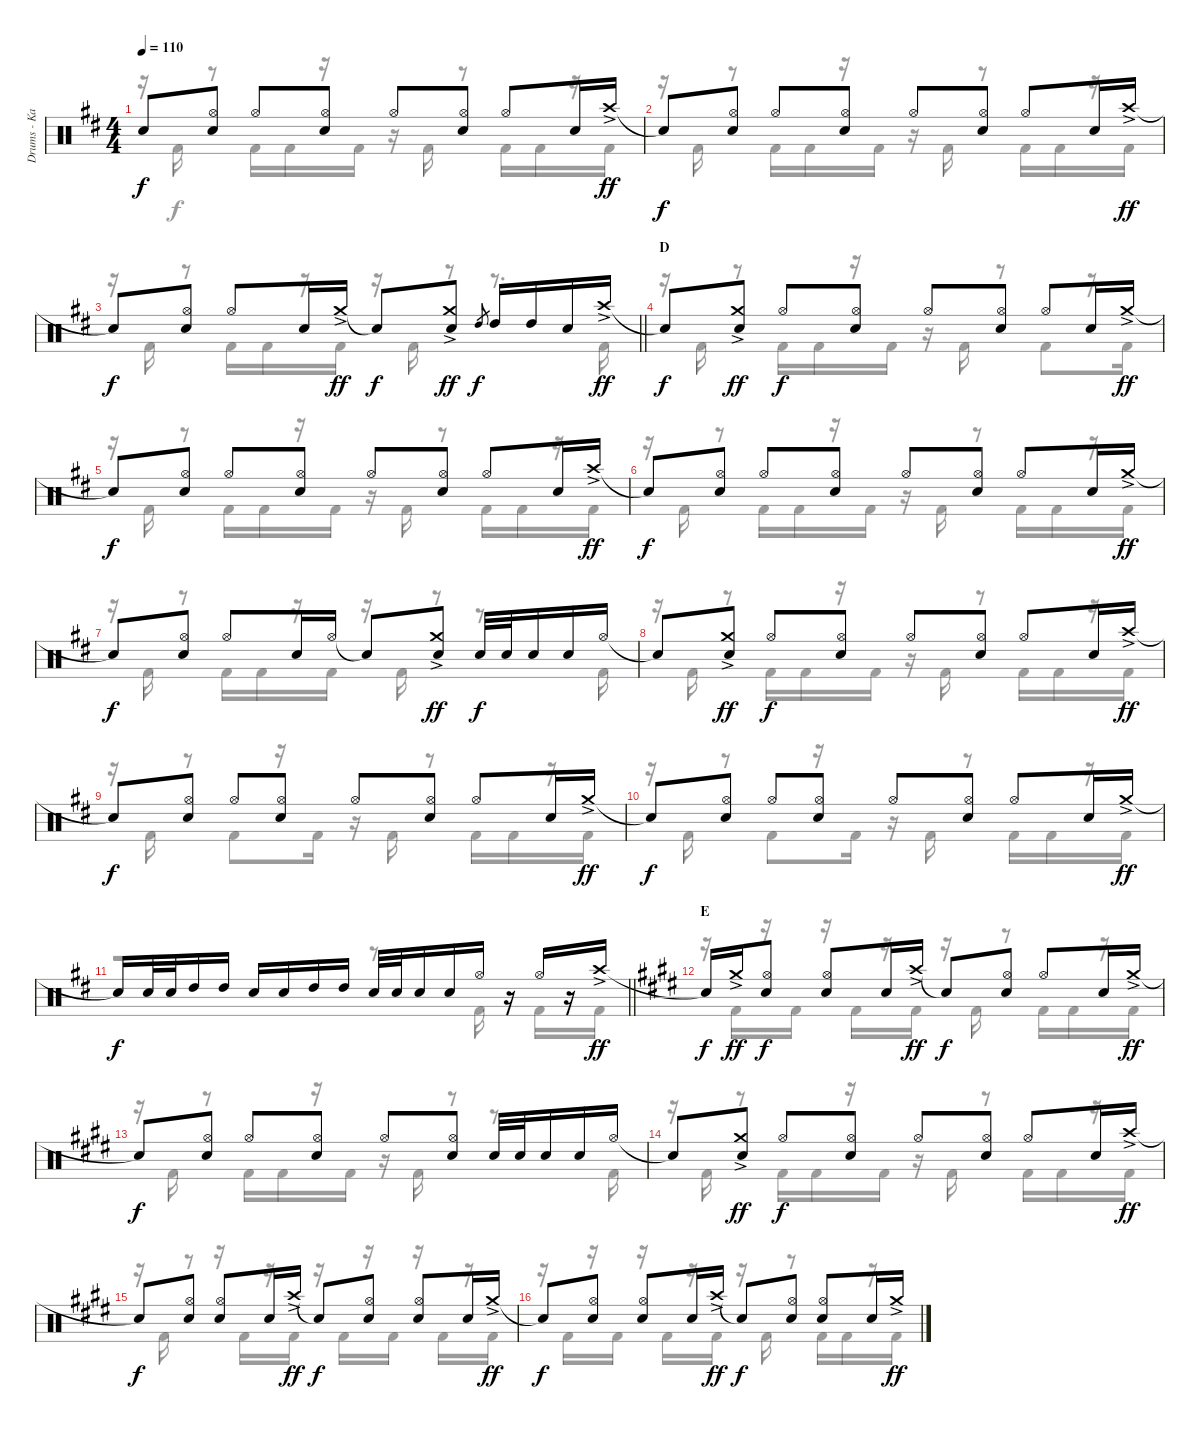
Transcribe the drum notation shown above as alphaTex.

\track ("Drums - Kai" "Drums - Ka") {instrument percussion}
\staff {score}
\articulation defaults
\voice
\ts (4 4)
\tempo 110
\clef neutral
\ks d "Snare (hit)"{t}.8{dy f}
("Hi-Hat (open)" "Snare (hit) 2").8 "Hi-Hat (open)".8 ("Hi-Hat (open)" "Snare (hit) 2").8 "Hi-Hat (open)".8 ("Hi-Hat (open)" "Snare (hit) 2").8 "Hi-Hat (open)".8 "Snare (hit) 2".16 "Crash high (hit)"{ac}.16{dy ff} |
"Snare (hit)"{t}.8{dy f} ("Hi-Hat (open)" "Snare (hit) 2").8 "Hi-Hat (open)".8 ("Hi-Hat (open)" "Snare (hit) 2").8 "Hi-Hat (open)".8 ("Hi-Hat (open)" "Snare (hit) 2").8 "Hi-Hat (open)".8 "Snare (hit) 2".16 "Crash high (hit)"{ac}.16{dy ff} |
\barLineRight lightlight "Snare (hit)"{t}.8{dy f}
("Hi-Hat (open)" "Snare (hit) 2").8 "Hi-Hat (open)".8 "Snare (hit) 2".16 "Crash medium (hit)"{ac}.16{dy ff} "Snare (hit)"{t}.8{dy f} ("Crash medium (hit)"{ac} "Snare (hit) 2").8{dy ff} "High Tom (hit)".8{gr dy f} "High Tom (hit)".16 "High Tom (hit)".16 "Snare (hit) 2".16 "Crash high (hit)"{ac}.16{dy ff} |
\section ("" "D")
"Snare (hit)"{t}.8{dy f} ("Crash medium (hit)"{ac} "Snare (hit) 2").8{dy ff} "Hi-Hat (open)".8{dy f} ("Hi-Hat (open)" "Snare (hit) 2").8 "Hi-Hat (open)".8 ("Hi-Hat (open)" "Snare (hit) 2").8 "Hi-Hat (open)".8 "Snare (hit) 2".16 "Crash medium (hit)"{ac}.16{dy ff} |
"Snare (hit)"{t}.8{dy f} ("Hi-Hat (open)" "Snare (hit) 2").8 "Hi-Hat (open)".8 ("Hi-Hat (open)" "Snare (hit) 2").8 "Hi-Hat (open)".8 ("Hi-Hat (open)" "Snare (hit) 2").8 "Hi-Hat (open)".8 "Snare (hit) 2".16 "Crash high (hit)"{ac}.16{dy ff} |
"Snare (hit)"{t}.8{dy f} ("Hi-Hat (open)" "Snare (hit) 2").8 "Hi-Hat (open)".8 ("Hi-Hat (open)" "Snare (hit) 2").8 "Hi-Hat (open)".8 ("Hi-Hat (open)" "Snare (hit) 2").8 "Hi-Hat (open)".8 "Snare (hit) 2".16 "Crash medium (hit)"{ac}.16{dy ff} |
"Snare (hit)"{t}.8{dy f} ("Hi-Hat (open)" "Snare (hit) 2").8 "Hi-Hat (open)".8 "Snare (hit) 2".16 "Hi-Hat (open)".16 "Snare (hit)"{t}.8 ("Crash medium (hit)"{ac} "Snare (hit) 2").8{dy ff} "Snare (hit) 2".32{dy f} "Snare (hit) 2".32 "Snare (hit) 2".16 "Snare (hit) 2".16 "Hi-Hat (open)".16 |
"Snare (hit)"{t}.8 ("Crash medium (hit)"{ac} "Snare (hit) 2").8{dy ff} "Hi-Hat (open)".8{dy f} ("Hi-Hat (open)" "Snare (hit) 2").8 "Hi-Hat (open)".8 ("Hi-Hat (open)" "Snare (hit) 2").8 "Hi-Hat (open)".8 "Snare (hit) 2".16 "Crash high (hit)"{ac}.16{dy ff} |
"Snare (hit)"{t}.8{dy f} ("Hi-Hat (open)" "Snare (hit) 2").8 "Hi-Hat (open)".8 ("Hi-Hat (open)" "Snare (hit) 2").8 "Hi-Hat (open)".8 ("Hi-Hat (open)" "Snare (hit) 2").8 "Hi-Hat (open)".8 "Snare (hit) 2".16 "Crash medium (hit)"{ac}.16{dy ff} |
"Snare (hit)"{t}.8{dy f} ("Hi-Hat (open)" "Snare (hit) 2").8 "Hi-Hat (open)".8 ("Hi-Hat (open)" "Snare (hit) 2").8 "Hi-Hat (open)".8 ("Hi-Hat (open)" "Snare (hit) 2").8 "Hi-Hat (open)".8 "Snare (hit) 2".16 "Crash medium (hit)"{ac}.16{dy ff} |
\barLineRight lightlight "Snare (hit)"{t}.16{dy f} "Snare (hit) 2".32 "Snare (hit) 2".32 "High Tom (hit)".16 "High Tom (hit)".16 "Snare (hit) 2".16 "Snare (hit) 2".16 "High Tom (hit)".16 "High Tom (hit)".16 "Snare (hit) 2".32 "Snare (hit) 2".32 "Snare (hit) 2".16 "Snare (hit) 2".16 "Hi-Hat (open)".16
r.16 "Hi-Hat (open)".16 r.16 "Crash high (hit)"{ac}.16{dy ff} |
\section ("" "E")
\ks e "Snare (hit)"{t}.16{dy f} "Crash medium (hit)"{ac}.16{dy ff}
("Hi-Hat (open)" "Snare (hit) 2").8{dy f} ("Hi-Hat (open)" "Snare (hit) 2").8 "Snare (hit) 2".16 "Crash high (hit)"{ac}.16{dy ff} "Snare (hit)"{t}.8{dy f} ("Hi-Hat (open)" "Snare (hit) 2").8 "Hi-Hat (open)".8 "Snare (hit) 2".16 "Crash medium (hit)"{ac}.16{dy ff} |
"Snare (hit)"{t}.8{dy f} ("Hi-Hat (open)" "Snare (hit) 2").8 "Hi-Hat (open)".8 ("Hi-Hat (open)" "Snare (hit) 2").8 "Hi-Hat (open)".8 ("Hi-Hat (open)" "Snare (hit) 2").8 "Snare (hit) 2".32 "Snare (hit) 2".32 "Snare (hit) 2".16 "Snare (hit) 2".16 "Hi-Hat (open)".16 |
"Snare (hit)"{t}.8 ("Crash medium (hit)"{ac} "Snare (hit) 2").8{dy ff} "Hi-Hat (open)".8{dy f} ("Hi-Hat (open)" "Snare (hit) 2").8 "Hi-Hat (open)".8 ("Hi-Hat (open)" "Snare (hit) 2").8 "Hi-Hat (open)".8 "Snare (hit) 2".16 "Crash high (hit)"{ac}.16{dy ff} |
"Snare (hit)"{t}.8{dy f} ("Hi-Hat (open)" "Snare (hit) 2").8 ("Hi-Hat (open)" "Snare (hit) 2").8 "Snare (hit) 2".16 "Crash high (hit)"{ac}.16{dy ff} "Snare (hit)"{t}.8{dy f} ("Hi-Hat (open)" "Snare (hit) 2").8 ("Hi-Hat (open)" "Snare (hit) 2").8 "Snare (hit) 2".16 "Crash medium (hit)"{ac}.16{dy ff} |
"Snare (hit)"{t}.8{dy f} ("Hi-Hat (open)" "Snare (hit) 2").8 ("Hi-Hat (open)" "Snare (hit) 2").8 "Snare (hit) 2".16 "Crash high (hit)"{ac}.16{dy ff} "Snare (hit)"{t}.8{dy f} ("Hi-Hat (open)" "Snare (hit) 2").8 ("Hi-Hat (open)" "Snare (hit) 2").8 "Snare (hit) 2".16 "Crash medium (hit)"{ac}.16{dy ff}
\voice
\clef neutral
\ottava regular
\simile none
\ks d
r.16{dy f} "Kick (hit) 2".16 r.8 "Kick (hit) 2".16 "Kick (hit) 2".16 r.16 "Kick (hit) 2".16 r.16 "Kick (hit) 2".16 r.8 "Kick (hit) 2".16 "Kick (hit) 2".16 r.16 "Kick (hit) 2".16 |
r.16 "Kick (hit) 2".16 r.8 "Kick (hit) 2".16 "Kick (hit) 2".16 r.16 "Kick (hit) 2".16 r.16 "Kick (hit) 2".16 r.8 "Kick (hit) 2".16 "Kick (hit) 2".16 r.16 "Kick (hit) 2".16 |
\barLineRight lightlight
r.16 "Kick (hit) 2".16 r.8 "Kick (hit) 2".16 "Kick (hit) 2".16 r.16 "Kick (hit) 2".16 r.16 "Kick (hit) 2".16 r.8 r.8{d} "Kick (hit) 2".16 |
r.16 "Kick (hit) 2".16 r.8 "Kick (hit) 2".16 "Kick (hit) 2".16 r.16 "Kick (hit) 2".16 r.16 "Kick (hit) 2".16 r.8 "Kick (hit) 2".8 r.16 "Kick (hit) 2".16 |
r.16 "Kick (hit) 2".16 r.8 "Kick (hit) 2".16 "Kick (hit) 2".16 r.16 "Kick (hit) 2".16 r.16 "Kick (hit) 2".16 r.8 "Kick (hit) 2".16 "Kick (hit) 2".16 r.16 "Kick (hit) 2".16 |
r.16 "Kick (hit) 2".16 r.8 "Kick (hit) 2".16 "Kick (hit) 2".16 r.16 "Kick (hit) 2".16 r.16 "Kick (hit) 2".16 r.8 "Kick (hit) 2".16 "Kick (hit) 2".16 r.16 "Kick (hit) 2".16 |
r.16 "Kick (hit) 2".16 r.8 "Kick (hit) 2".16 "Kick (hit) 2".16 r.16 "Kick (hit) 2".16 r.16 "Kick (hit) 2".16 r.8 r.8{d} "Kick (hit) 2".16 |
r.16 "Kick (hit) 2".16 r.8 "Kick (hit) 2".16 "Kick (hit) 2".16 r.16 "Kick (hit) 2".16 r.16 "Kick (hit) 2".16 r.8 "Kick (hit) 2".16 "Kick (hit) 2".16 r.16 "Kick (hit) 2".16 |
r.16 "Kick (hit) 2".16 r.8 "Kick (hit) 2".8 r.16 "Kick (hit) 2".16 r.16 "Kick (hit) 2".16 r.8 "Kick (hit) 2".16 "Kick (hit) 2".16 r.16 "Kick (hit) 2".16 |
r.16 "Kick (hit) 2".16 r.8 "Kick (hit) 2".8 r.16 "Kick (hit) 2".16 r.16 "Kick (hit) 2".16 r.8 "Kick (hit) 2".16 "Kick (hit) 2".16 r.16 "Kick (hit) 2".16 |
\barLineRight lightlight
r.2 r.8{d} "Kick (hit) 2".16 r.16 "Kick (hit) 2".16 r.16 "Kick (hit) 2".16 |
\ks e
r.16 "Kick (hit) 2".16 r.16 "Kick (hit) 2".16 r.16 "Kick (hit) 2".16 r.16 "Kick (hit) 2".16 r.16 "Kick (hit) 2".16 r.8 "Kick (hit) 2".16 "Kick (hit) 2".16 r.16 "Kick (hit) 2".16 |
r.16 "Kick (hit) 2".16 r.8 "Kick (hit) 2".16 "Kick (hit) 2".16 r.16 "Kick (hit) 2".16 r.16 "Kick (hit) 2".16 r.8 r.8{d} "Kick (hit) 2".16 |
r.16 "Kick (hit) 2".16 r.8 "Kick (hit) 2".16 "Kick (hit) 2".16 r.16 "Kick (hit) 2".16 r.16 "Kick (hit) 2".16 r.8 "Kick (hit) 2".16 "Kick (hit) 2".16 r.16 "Kick (hit) 2".16 |
r.16 "Kick (hit) 2".16 r.8 r.16 "Kick (hit) 2".16 r.16 "Kick (hit) 2".16 r.16 "Kick (hit) 2".16 r.16 "Kick (hit) 2".16 r.16 "Kick (hit) 2".16 r.16 "Kick (hit) 2".16 |
r.16 "Kick (hit) 2".16 r.16 "Kick (hit) 2".16 r.16 "Kick (hit) 2".16 r.16 "Kick (hit) 2".16 r.16 "Kick (hit) 2".16 r.8 "Kick (hit) 2".16 "Kick (hit) 2".16 r.16 "Kick (hit) 2".16
